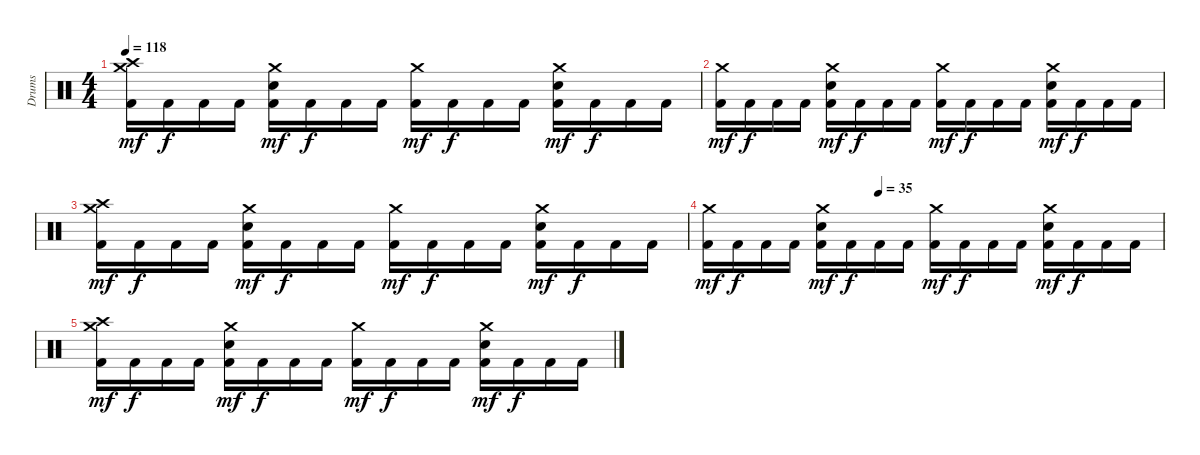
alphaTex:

\track ("Drums" "Drums") {instrument percussion}
\staff {score}
\articulation defaults
\ts (4 4)
\tempo 118
\clef neutral
\ks c
("Crash medium (hit)" "Crash high (hit)" "Kick (hit) 2").16{dy mf} "Kick (hit) 2".16{dy f} "Kick (hit) 2".16 "Kick (hit) 2".16 ("Crash medium (hit)" "Electric Snare (hit)" "Kick (hit) 2").16{dy mf} "Kick (hit) 2".16{dy f} "Kick (hit) 2".16 "Kick (hit) 2".16 ("Crash medium (hit)" "Kick (hit) 2").16{dy mf} "Kick (hit) 2".16{dy f} "Kick (hit) 2".16 "Kick (hit) 2".16 ("Crash medium (hit)" "Electric Snare (hit)" "Kick (hit) 2").16{dy mf} "Kick (hit) 2".16{dy f} "Kick (hit) 2".16 "Kick (hit) 2".16 |
("Crash medium (hit)" "Kick (hit) 2").16{dy mf} "Kick (hit) 2".16{dy f} "Kick (hit) 2".16 "Kick (hit) 2".16 ("Crash medium (hit)" "Electric Snare (hit)" "Kick (hit) 2").16{dy mf} "Kick (hit) 2".16{dy f} "Kick (hit) 2".16 "Kick (hit) 2".16 ("Crash medium (hit)" "Kick (hit) 2").16{dy mf} "Kick (hit) 2".16{dy f} "Kick (hit) 2".16 "Kick (hit) 2".16 ("Crash medium (hit)" "Electric Snare (hit)" "Kick (hit) 2").16{dy mf} "Kick (hit) 2".16{dy f} "Kick (hit) 2".16 "Kick (hit) 2".16 |
("Crash medium (hit)" "Crash high (hit)" "Kick (hit) 2").16{dy mf} "Kick (hit) 2".16{dy f} "Kick (hit) 2".16 "Kick (hit) 2".16 ("Crash medium (hit)" "Electric Snare (hit)" "Kick (hit) 2").16{dy mf} "Kick (hit) 2".16{dy f} "Kick (hit) 2".16 "Kick (hit) 2".16 ("Crash medium (hit)" "Kick (hit) 2").16{dy mf} "Kick (hit) 2".16{dy f} "Kick (hit) 2".16 "Kick (hit) 2".16 ("Crash medium (hit)" "Electric Snare (hit)" "Kick (hit) 2").16{dy mf} "Kick (hit) 2".16{dy f} "Kick (hit) 2".16 "Kick (hit) 2".16 |
\tempo (35 0.375)
("Crash medium (hit)" "Kick (hit) 2").16{dy mf} "Kick (hit) 2".16{dy f} "Kick (hit) 2".16 "Kick (hit) 2".16 ("Crash medium (hit)" "Electric Snare (hit)" "Kick (hit) 2").16{dy mf} "Kick (hit) 2".16{dy f} "Kick (hit) 2".16 "Kick (hit) 2".16 ("Crash medium (hit)" "Kick (hit) 2").16{dy mf} "Kick (hit) 2".16{dy f} "Kick (hit) 2".16 "Kick (hit) 2".16 ("Crash medium (hit)" "Electric Snare (hit)" "Kick (hit) 2").16{dy mf} "Kick (hit) 2".16{dy f} "Kick (hit) 2".16 "Kick (hit) 2".16 |
("Crash medium (hit)" "Crash high (hit)" "Kick (hit) 2").16{dy mf} "Kick (hit) 2".16{dy f} "Kick (hit) 2".16 "Kick (hit) 2".16 ("Crash medium (hit)" "Electric Snare (hit)" "Kick (hit) 2").16{dy mf} "Kick (hit) 2".16{dy f} "Kick (hit) 2".16 "Kick (hit) 2".16 ("Crash medium (hit)" "Kick (hit) 2").16{dy mf} "Kick (hit) 2".16{dy f} "Kick (hit) 2".16 "Kick (hit) 2".16 ("Crash medium (hit)" "Electric Snare (hit)" "Kick (hit) 2").16{dy mf} "Kick (hit) 2".16{dy f} "Kick (hit) 2".16 "Kick (hit) 2".16
